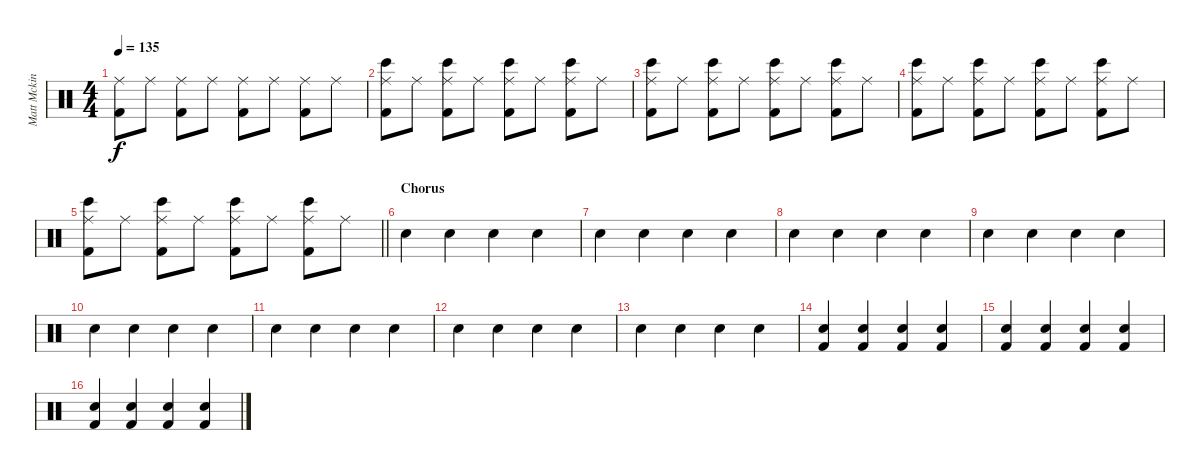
\track ("Matt Mckinley (Drums)" "Matt Mckin") {instrument percussion}
\staff {score}
\articulation defaults
\ts (4 4)
\tempo 135
\clef neutral
\ks c
("Ride (middle)" "Kick (hit) 2").8{dy f} "Ride (middle)".8 ("Ride (middle)" "Kick (hit) 2").8 "Ride (middle)".8 ("Ride (middle)" "Kick (hit) 2").8 "Ride (middle)".8 ("Ride (middle)" "Kick (hit) 2").8 "Ride (middle)".8 |
("Ride (middle)" "Bongo High (hit)" "Kick (hit) 2").8 "Ride (middle)".8 ("Ride (middle)" "Bongo High (hit)" "Kick (hit) 2").8 "Ride (middle)".8 ("Ride (middle)" "Bongo High (hit)" "Kick (hit) 2").8 "Ride (middle)".8 ("Ride (middle)" "Bongo High (hit)" "Kick (hit) 2").8 "Ride (middle)".8 |
("Ride (middle)" "Bongo High (hit)" "Kick (hit) 2").8 "Ride (middle)".8 ("Ride (middle)" "Bongo High (hit)" "Kick (hit) 2").8 "Ride (middle)".8 ("Ride (middle)" "Bongo High (hit)" "Kick (hit) 2").8 "Ride (middle)".8 ("Ride (middle)" "Bongo High (hit)" "Kick (hit) 2").8 "Ride (middle)".8 |
("Ride (middle)" "Bongo High (hit)" "Kick (hit) 2").8 "Ride (middle)".8 ("Ride (middle)" "Bongo High (hit)" "Kick (hit) 2").8 "Ride (middle)".8 ("Ride (middle)" "Bongo High (hit)" "Kick (hit) 2").8 "Ride (middle)".8 ("Ride (middle)" "Bongo High (hit)" "Kick (hit) 2").8 "Ride (middle)".8 |
\barLineRight lightlight
("Ride (middle)" "Bongo High (hit)" "Kick (hit) 2").8 "Ride (middle)".8 ("Ride (middle)" "Bongo High (hit)" "Kick (hit) 2").8 "Ride (middle)".8 ("Ride (middle)" "Bongo High (hit)" "Kick (hit) 2").8 "Ride (middle)".8 ("Ride (middle)" "Bongo High (hit)" "Kick (hit) 2").8 "Ride (middle)".8 |
\section ("" "Chorus")
"Electric Snare (hit)".4 "Electric Snare (hit)".4 "Electric Snare (hit)".4 "Electric Snare (hit)".4 |
"Electric Snare (hit)".4 "Electric Snare (hit)".4 "Electric Snare (hit)".4 "Electric Snare (hit)".4 |
"Electric Snare (hit)".4 "Electric Snare (hit)".4 "Electric Snare (hit)".4 "Electric Snare (hit)".4 |
"Electric Snare (hit)".4 "Electric Snare (hit)".4 "Electric Snare (hit)".4 "Electric Snare (hit)".4 |
"Electric Snare (hit)".4 "Electric Snare (hit)".4 "Electric Snare (hit)".4 "Electric Snare (hit)".4 |
"Electric Snare (hit)".4 "Electric Snare (hit)".4 "Electric Snare (hit)".4 "Electric Snare (hit)".4 |
"Electric Snare (hit)".4 "Electric Snare (hit)".4 "Electric Snare (hit)".4 "Electric Snare (hit)".4 |
"Electric Snare (hit)".4 "Electric Snare (hit)".4 "Electric Snare (hit)".4 "Electric Snare (hit)".4 |
("Electric Snare (hit)" "Kick (hit) 2").4 ("Electric Snare (hit)" "Kick (hit) 2").4 ("Electric Snare (hit)" "Kick (hit) 2").4 ("Electric Snare (hit)" "Kick (hit) 2").4 |
("Electric Snare (hit)" "Kick (hit) 2").4 ("Electric Snare (hit)" "Kick (hit) 2").4 ("Electric Snare (hit)" "Kick (hit) 2").4 ("Electric Snare (hit)" "Kick (hit) 2").4 |
("Electric Snare (hit)" "Kick (hit) 2").4 ("Electric Snare (hit)" "Kick (hit) 2").4 ("Electric Snare (hit)" "Kick (hit) 2").4 ("Electric Snare (hit)" "Kick (hit) 2").4
